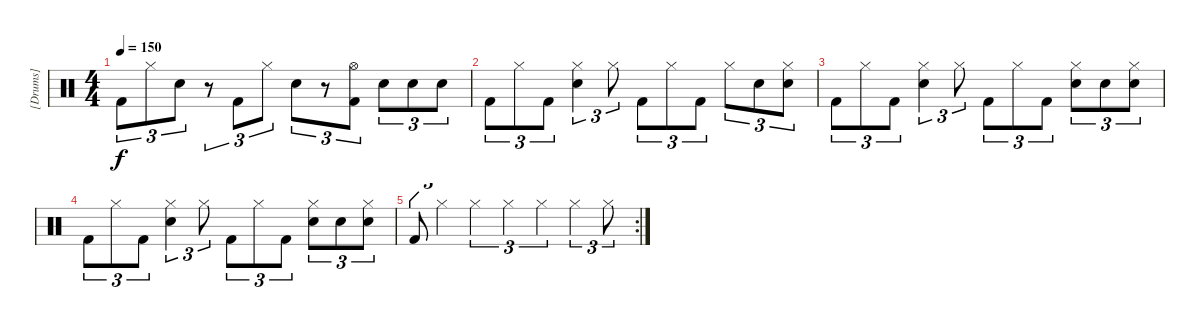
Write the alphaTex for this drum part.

\track ("[Drums]" "[Drums]") {instrument percussion}
\staff {score}
\articulation defaults
\ts (4 4)
\tempo 150
\clef neutral
\ks c "Kick (hit) 2".8{tu (3 2) dy f} "Hi-Hat (closed)".8{tu (3 2)} "Electric Snare (hit)".8{tu (3 2)}
r.8{tu (3 2)} "Kick (hit) 2".8{tu (3 2)} "Hi-Hat (closed)".8{tu (3 2)} "Electric Snare (hit)".8{tu (3 2)} r.8{tu (3 2)} ("Hi-Hat (open)" "Kick (hit) 2").8{tu (3 2)} "Electric Snare (hit)".8{tu (3 2)} "Electric Snare (hit)".8{tu (3 2)} "Electric Snare (hit)".8{tu (3 2)} |
"Kick (hit) 2".8{tu (3 2)} "Hi-Hat (closed)".8{tu (3 2)} "Kick (hit) 2".8{tu (3 2)} ("Hi-Hat (closed)" "Electric Snare (hit)").4{tu (3 2)} "Hi-Hat (closed)".8{tu (3 2)} "Kick (hit) 2".8{tu (3 2)} "Hi-Hat (closed)".8{tu (3 2)} "Kick (hit) 2".8{tu (3 2)} "Hi-Hat (closed)".8{tu (3 2)} "Electric Snare (hit)".8{tu (3 2)} ("Hi-Hat (closed)" "Electric Snare (hit)").8{tu (3 2)} |
"Kick (hit) 2".8{tu (3 2)} "Hi-Hat (closed)".8{tu (3 2)} "Kick (hit) 2".8{tu (3 2)} ("Hi-Hat (closed)" "Electric Snare (hit)").4{tu (3 2)} "Hi-Hat (closed)".8{tu (3 2)} "Kick (hit) 2".8{tu (3 2)} "Hi-Hat (closed)".8{tu (3 2)} "Kick (hit) 2".8{tu (3 2)} ("Hi-Hat (closed)" "Electric Snare (hit)").8{tu (3 2)} "Electric Snare (hit)".8{tu (3 2)} ("Hi-Hat (closed)" "Electric Snare (hit)").8{tu (3 2)} |
"Kick (hit) 2".8{tu (3 2)} "Hi-Hat (closed)".8{tu (3 2)} "Kick (hit) 2".8{tu (3 2)} ("Hi-Hat (closed)" "Electric Snare (hit)").4{tu (3 2)} "Hi-Hat (closed)".8{tu (3 2)} "Kick (hit) 2".8{tu (3 2)} "Hi-Hat (closed)".8{tu (3 2)} "Kick (hit) 2".8{tu (3 2)} ("Hi-Hat (closed)" "Electric Snare (hit)").8{tu (3 2)} "Electric Snare (hit)".8{tu (3 2)} ("Hi-Hat (closed)" "Electric Snare (hit)").8{tu (3 2)} |
\rc 2 "Kick (hit) 2".8{tu (3 2)} "Hi-Hat (closed)".4{tu (3 2)} "Hi-Hat (closed)".4{tu (3 2)} "Hi-Hat (closed)".4{tu (3 2)} "Hi-Hat (closed)".4{tu (3 2)} "Hi-Hat (closed)".4{tu (3 2)} "Hi-Hat (closed)".8{tu (3 2)}
